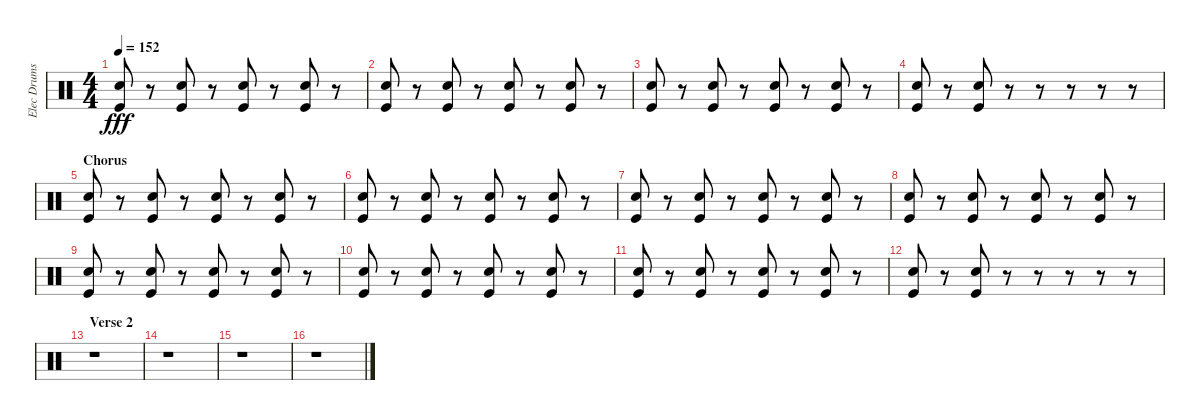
\track ("Elec Drums" "Elec Drums") {instrument percussion}
\staff {score}
\articulation defaults
\ts (4 4)
\tempo 152
\clef neutral
\ks c
("Electric Snare (hit)" "Kick (hit)").8{dy fff} r.8 ("Electric Snare (hit)" "Kick (hit)").8 r.8 ("Electric Snare (hit)" "Kick (hit)").8 r.8 ("Electric Snare (hit)" "Kick (hit)").8 r.8 |
("Electric Snare (hit)" "Kick (hit)").8 r.8 ("Electric Snare (hit)" "Kick (hit)").8 r.8 ("Electric Snare (hit)" "Kick (hit)").8 r.8 ("Electric Snare (hit)" "Kick (hit)").8 r.8 |
("Electric Snare (hit)" "Kick (hit)").8 r.8 ("Electric Snare (hit)" "Kick (hit)").8 r.8 ("Electric Snare (hit)" "Kick (hit)").8 r.8 ("Electric Snare (hit)" "Kick (hit)").8 r.8 |
("Electric Snare (hit)" "Kick (hit)").8 r.8 ("Electric Snare (hit)" "Kick (hit)").8 r.8 r.8 r.8 r.8 r.8 |
\section ("" "Chorus")
("Electric Snare (hit)" "Kick (hit)").8 r.8 ("Electric Snare (hit)" "Kick (hit)").8 r.8 ("Electric Snare (hit)" "Kick (hit)").8 r.8 ("Electric Snare (hit)" "Kick (hit)").8 r.8 |
("Electric Snare (hit)" "Kick (hit)").8 r.8 ("Electric Snare (hit)" "Kick (hit)").8 r.8 ("Electric Snare (hit)" "Kick (hit)").8 r.8 ("Electric Snare (hit)" "Kick (hit)").8 r.8 |
("Electric Snare (hit)" "Kick (hit)").8 r.8 ("Electric Snare (hit)" "Kick (hit)").8 r.8 ("Electric Snare (hit)" "Kick (hit)").8 r.8 ("Electric Snare (hit)" "Kick (hit)").8 r.8 |
("Electric Snare (hit)" "Kick (hit)").8 r.8 ("Electric Snare (hit)" "Kick (hit)").8 r.8 ("Electric Snare (hit)" "Kick (hit)").8 r.8 ("Electric Snare (hit)" "Kick (hit)").8 r.8 |
("Electric Snare (hit)" "Kick (hit)").8 r.8 ("Electric Snare (hit)" "Kick (hit)").8 r.8 ("Electric Snare (hit)" "Kick (hit)").8 r.8 ("Electric Snare (hit)" "Kick (hit)").8 r.8 |
("Electric Snare (hit)" "Kick (hit)").8 r.8 ("Electric Snare (hit)" "Kick (hit)").8 r.8 ("Electric Snare (hit)" "Kick (hit)").8 r.8 ("Electric Snare (hit)" "Kick (hit)").8 r.8 |
("Electric Snare (hit)" "Kick (hit)").8 r.8 ("Electric Snare (hit)" "Kick (hit)").8 r.8 ("Electric Snare (hit)" "Kick (hit)").8 r.8 ("Electric Snare (hit)" "Kick (hit)").8 r.8 |
("Electric Snare (hit)" "Kick (hit)").8 r.8 ("Electric Snare (hit)" "Kick (hit)").8 r.8 r.8 r.8 r.8 r.8 |
\section ("" "Verse 2")
r.1 |
r.1 |
r.1 |
r.1
